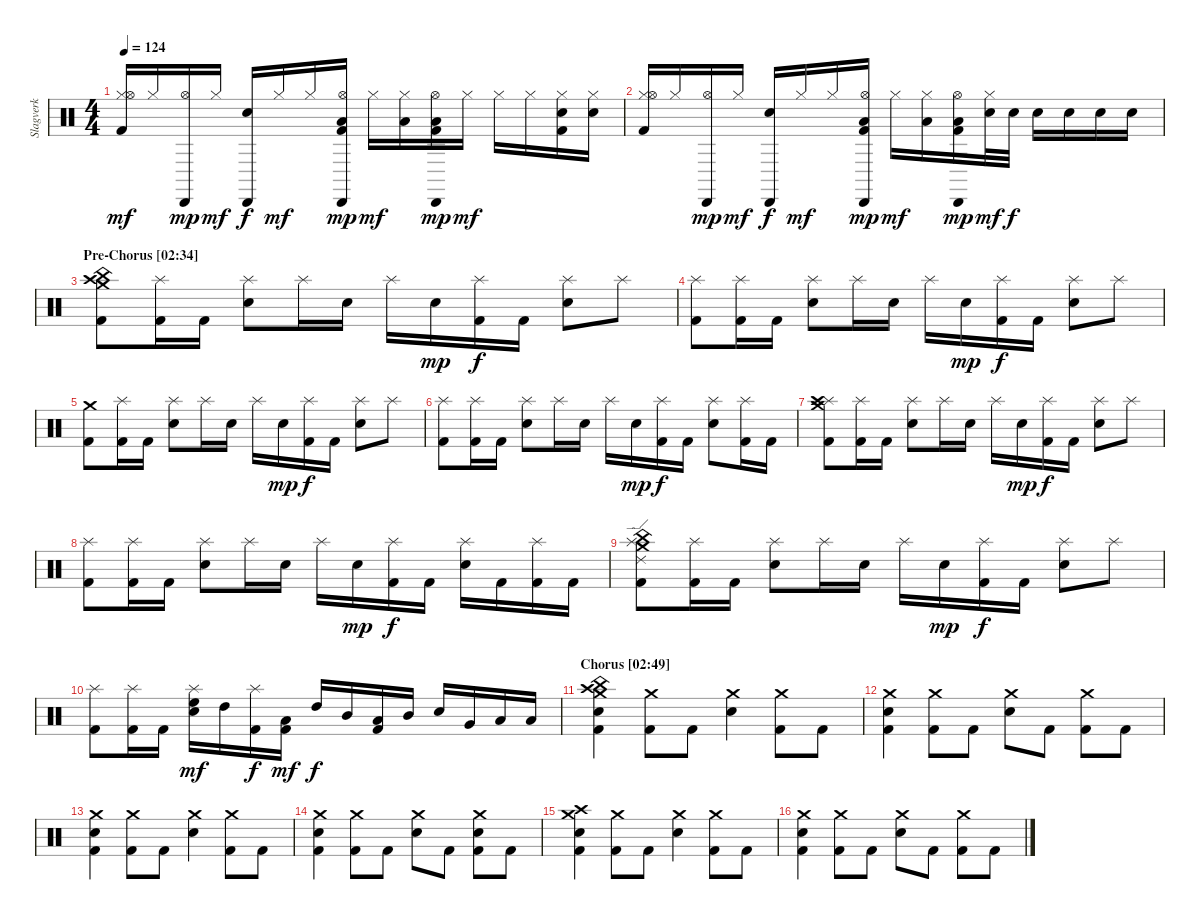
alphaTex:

\track ("Slagverk" "Slagverk") {instrument percussion}
\staff {score}
\articulation defaults
\ts (4 4)
\tempo 124
\clef neutral
\ks c
("Hi-Hat (closed)" "Hi-Hat (open)" "Kick (hit) 2").16{dy mf} "Hi-Hat (closed)".16 ("Cabasa (hit)" "Hi-Hat (open)").16{dy mp} "Hi-Hat (closed)".16{dy mf} ("Cabasa (hit)" "Electric Snare (hit)").16{dy f} "Hi-Hat (closed)".16{dy mf} "Hi-Hat (closed)".16 ("Cabasa (hit)" "Hi-Hat (open)" "Kick (hit) 2" "Low Tom (hit)").16{dy mp} "Hi-Hat (closed)".16{dy mf} ("Hi-Hat (closed)" "Low Tom (hit)").16 ("Cabasa (hit)" "Hi-Hat (open)" "Kick (hit) 2" "Low Tom (hit)").16{dy mp} "Hi-Hat (closed)".16{dy mf} "Hi-Hat (closed)".16 "Hi-Hat (closed)".16 ("Hi-Hat (closed)" "Electric Snare (hit)" "Kick (hit) 2").16 ("Hi-Hat (closed)" "Electric Snare (hit)").16 |
("Hi-Hat (closed)" "Hi-Hat (open)" "Kick (hit) 2").16 "Hi-Hat (closed)".16 ("Cabasa (hit)" "Hi-Hat (open)").16{dy mp} "Hi-Hat (closed)".16{dy mf} ("Cabasa (hit)" "Electric Snare (hit)").16{dy f} "Hi-Hat (closed)".16{dy mf} "Hi-Hat (closed)".16 ("Cabasa (hit)" "Hi-Hat (open)" "Kick (hit) 2" "Low Tom (hit)").16{dy mp} "Hi-Hat (closed)".16{dy mf} ("Hi-Hat (closed)" "Low Tom (hit)").16 ("Cabasa (hit)" "Hi-Hat (open)" "Kick (hit) 2" "Low Tom (hit)").16{dy mp} ("Hi-Hat (closed)" "Electric Snare (hit)").32{dy mf} "Electric Snare (hit)".32{dy f} "Electric Snare (hit)".16 "Electric Snare (hit)".16 "Electric Snare (hit)".16 "Electric Snare (hit)".16 |
\section ("" "Pre-Chorus [02:34]")
("Crash medium (hit)" "China (hit)" "Crash high (hit)" "Kick (hit) 2").8 ("Splash (hit)" "Kick (hit) 2").16 "Kick (hit) 2".16 ("Splash (hit)" "Electric Snare (hit)").8 "Splash (hit)".16 "Electric Snare (hit)".16 "Splash (hit)".16 "Electric Snare (hit)".16{dy mp} ("Splash (hit)" "Kick (hit) 2").16{dy f} "Kick (hit) 2".16 ("Splash (hit)" "Electric Snare (hit)").8 "Splash (hit)".8 |
("Splash (hit)" "Kick (hit) 2").8 ("Splash (hit)" "Kick (hit) 2").16 "Kick (hit) 2".16 ("Splash (hit)" "Electric Snare (hit)").8 "Splash (hit)".16 "Electric Snare (hit)".16 "Splash (hit)".16 "Electric Snare (hit)".16{dy mp} ("Splash (hit)" "Kick (hit) 2").16{dy f} "Kick (hit) 2".16 ("Splash (hit)" "Electric Snare (hit)").8 "Splash (hit)".8 |
("Crash medium (hit)" "Kick (hit) 2").8 ("Splash (hit)" "Kick (hit) 2").16 "Kick (hit) 2".16 ("Splash (hit)" "Electric Snare (hit)").8 "Splash (hit)".16 "Electric Snare (hit)".16 "Splash (hit)".16 "Electric Snare (hit)".16{dy mp} ("Splash (hit)" "Kick (hit) 2").16{dy f} "Kick (hit) 2".16 ("Splash (hit)" "Electric Snare (hit)").8 "Splash (hit)".8 |
("Splash (hit)" "Kick (hit) 2").8 ("Splash (hit)" "Kick (hit) 2").16 "Kick (hit) 2".16 ("Splash (hit)" "Electric Snare (hit)").8 "Splash (hit)".16 "Electric Snare (hit)".16 "Splash (hit)".16 "Electric Snare (hit)".16{dy mp} ("Splash (hit)" "Kick (hit) 2").16{dy f} "Kick (hit) 2".16 ("Splash (hit)" "Electric Snare (hit)").8 ("Splash (hit)" "Kick (hit) 2").16 "Kick (hit) 2".16 |
("Crash medium (hit)" "Splash (hit)" "Crash high (hit)" "Kick (hit) 2").8 ("Splash (hit)" "Kick (hit) 2").16 "Kick (hit) 2".16 ("Splash (hit)" "Electric Snare (hit)").8 "Splash (hit)".16 "Electric Snare (hit)".16 "Splash (hit)".16 "Electric Snare (hit)".16{dy mp} ("Splash (hit)" "Kick (hit) 2").16{dy f} "Kick (hit) 2".16 ("Splash (hit)" "Electric Snare (hit)").8 "Splash (hit)".8 |
("Splash (hit)" "Kick (hit) 2").8 ("Splash (hit)" "Kick (hit) 2").16 "Kick (hit) 2".16 ("Splash (hit)" "Electric Snare (hit)").8 "Splash (hit)".16 "Electric Snare (hit)".16 "Splash (hit)".16 "Electric Snare (hit)".16{dy mp} ("Splash (hit)" "Kick (hit) 2").16{dy f} "Kick (hit) 2".16 ("Splash (hit)" "Electric Snare (hit)").16 "Kick (hit) 2".16 ("Splash (hit)" "Kick (hit) 2").16 "Kick (hit) 2".16 |
("Crash medium (hit)" "Ride (edge) 2" "Splash (hit)" "China (hit)" "Kick (hit) 2").8 ("Splash (hit)" "Kick (hit) 2").16 "Kick (hit) 2".16 ("Splash (hit)" "Electric Snare (hit)").8 "Splash (hit)".16 "Electric Snare (hit)".16 "Splash (hit)".16 "Electric Snare (hit)".16{dy mp} ("Splash (hit)" "Kick (hit) 2").16{dy f} "Kick (hit) 2".16 ("Splash (hit)" "Electric Snare (hit)").8 "Splash (hit)".8 |
("Splash (hit)" "Kick (hit) 2").8 ("Splash (hit)" "Kick (hit) 2").16 "Kick (hit) 2".16 ("Splash (hit)" "High Floor Tom (hit)" "Electric Snare (hit)").16{dy mf} "High Tom (hit)".16 ("Splash (hit)" "Kick (hit) 2").16{dy f} ("Low Tom (hit)" "Kick (hit) 2").16{dy mf} "High Tom (hit)".16{dy f} "Mid Tom (hit)".16 ("Low Tom (hit)" "Kick (hit) 2").16 "Mid Tom (hit)".16 "Electric Snare (hit)".16 "Very Low Tom (hit)".16 "Low Floor Tom (hit)".16 "Low Floor Tom (hit)".16 |
\section ("" "Chorus [02:49]")
("Crash medium (hit)" "Crash high (hit)" "China (hit)" "Electric Snare (hit)" "Kick (hit) 2").4 ("Crash medium (hit)" "Kick (hit) 2").8 "Kick (hit) 2".8 ("Crash medium (hit)" "Electric Snare (hit)").4 ("Crash medium (hit)" "Kick (hit) 2").8 "Kick (hit) 2".8 |
("Crash medium (hit)" "Electric Snare (hit)" "Kick (hit) 2").4 ("Crash medium (hit)" "Kick (hit) 2").8 "Kick (hit) 2".8 ("Crash medium (hit)" "Electric Snare (hit)").8 "Kick (hit) 2".8 ("Crash medium (hit)" "Kick (hit) 2").8 "Kick (hit) 2".8 |
("Crash medium (hit)" "Electric Snare (hit)" "Kick (hit) 2").4 ("Crash medium (hit)" "Kick (hit) 2").8 "Kick (hit) 2".8 ("Crash medium (hit)" "Electric Snare (hit)").4 ("Crash medium (hit)" "Kick (hit) 2").8 "Kick (hit) 2".8 |
("Crash medium (hit)" "Electric Snare (hit)" "Kick (hit) 2").4 ("Crash medium (hit)" "Kick (hit) 2").8 "Kick (hit) 2".8 ("Crash medium (hit)" "Electric Snare (hit)").8 "Kick (hit) 2".8 ("Crash medium (hit)" "Electric Snare (hit)" "Kick (hit) 2").8 "Kick (hit) 2".8 |
("Crash medium (hit)" "Crash high (hit)" "Electric Snare (hit)" "Kick (hit) 2").4 ("Crash medium (hit)" "Kick (hit) 2").8 "Kick (hit) 2".8 ("Crash medium (hit)" "Electric Snare (hit)").4 ("Crash medium (hit)" "Kick (hit) 2").8 "Kick (hit) 2".8 |
("Crash medium (hit)" "Electric Snare (hit)" "Kick (hit) 2").4 ("Crash medium (hit)" "Kick (hit) 2").8 "Kick (hit) 2".8 ("Crash medium (hit)" "Electric Snare (hit)").8 "Kick (hit) 2".8 ("Crash medium (hit)" "Kick (hit) 2").8 "Kick (hit) 2".8
